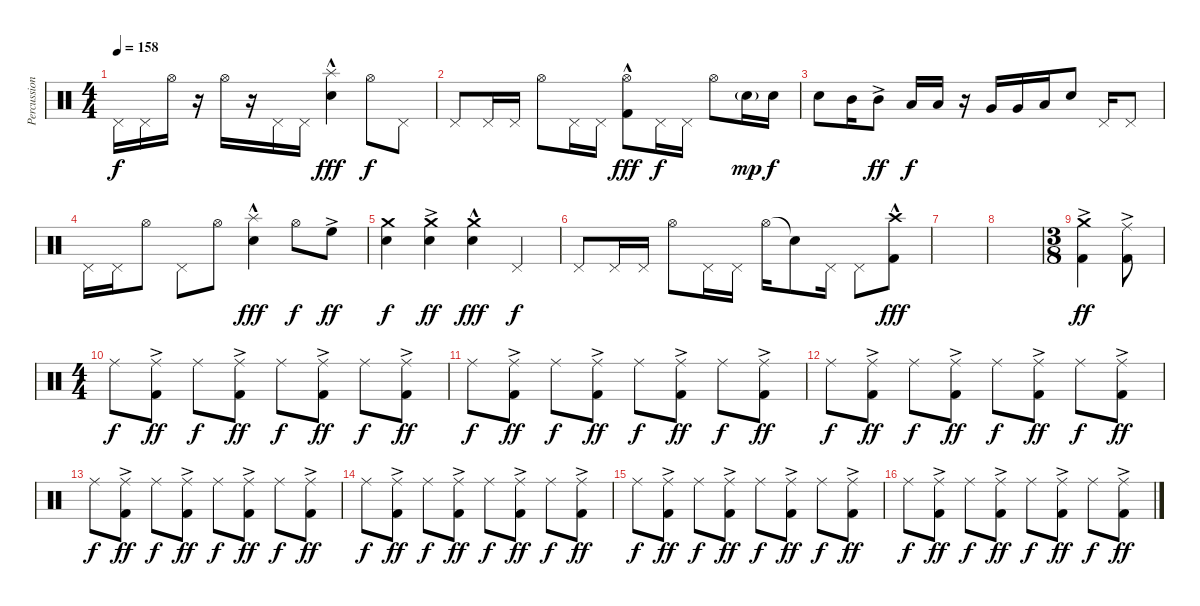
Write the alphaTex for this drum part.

\track ("Percussion" "Percussion") {instrument percussion}
\staff {score}
\articulation defaults
\ts (4 4)
\tempo 158
\clef neutral
\ks c "Pedal Hi-Hat (hit)".16{dy f} "Pedal Hi-Hat (hit)".16 "Hi-Hat (open)".16
r.16 "Hi-Hat (open)".16 r.16 "Pedal Hi-Hat (hit)".16 "Pedal Hi-Hat (hit)".16 ("Splash (hit)" "Electric Snare (hit)"{hac}).4{dy fff} "Hi-Hat (open)".8{dy f} "Pedal Hi-Hat (hit)".8 |
"Pedal Hi-Hat (hit)".8 "Pedal Hi-Hat (hit)".16 "Pedal Hi-Hat (hit)".16 "Hi-Hat (open)".8 "Pedal Hi-Hat (hit)".16 "Pedal Hi-Hat (hit)".16 ("Hi-Hat (open)" "Kick (hit) 2"{hac}).8{dy fff} "Pedal Hi-Hat (hit)".16{dy f} "Pedal Hi-Hat (hit)".16 "Hi-Hat (open)".8 "Electric Snare (hit)"{g}.16{dy mp} "Electric Snare (hit)".16{dy f} |
"Electric Snare (hit)".8 "Mid Tom (hit)".16 "Mid Tom (hit)"{ac}.8{dy ff} "Low Tom (hit)".16{dy f} "Low Tom (hit)".16 r.16 "Very Low Tom (hit)".16 "Very Low Tom (hit)".16 "Low Floor Tom (hit)".16 "Electric Snare (hit)".8 "Pedal Hi-Hat (hit)".16 "Pedal Hi-Hat (hit)".8 |
"Pedal Hi-Hat (hit)".16 "Pedal Hi-Hat (hit)".16 "Hi-Hat (open)".8 "Pedal Hi-Hat (hit)".8 "Hi-Hat (open)".8 ("Splash (hit)" "Electric Snare (hit)"{hac}).4{dy fff} "Hi-Hat (open)".8{dy f} "High Floor Tom (hit)"{ac}.8{dy ff} |
("Crash medium (hit)" "Electric Snare (hit)").4{dy f} ("Crash medium (hit)" "Electric Snare (hit)"{ac}).4{dy ff} ("Crash medium (hit)" "Electric Snare (hit)"{hac}).4{dy fff} "Pedal Hi-Hat (hit)".4{dy f} |
"Pedal Hi-Hat (hit)".8 "Pedal Hi-Hat (hit)".16 "Pedal Hi-Hat (hit)".16 "Hi-Hat (open)".8 "Pedal Hi-Hat (hit)".16 "Pedal Hi-Hat (hit)".16 "Hi-Hat (open)".16 "Snare (hit)"{t}.8 "Pedal Hi-Hat (hit)".16 "Pedal Hi-Hat (hit)".8 ("Crash high (hit)" "Kick (hit) 2"{hac}).8{dy fff} |
|
|
\ts (3 8)
("Crash medium (hit)" "Kick (hit) 2"{ac}).4{dy ff} ("Ride (middle)"{ac} "Kick (hit) 2").8 |
\ts (4 4)
"Ride (middle)".8{dy f} ("Ride (middle)"{ac} "Kick (hit) 2").8{dy ff} "Ride (middle)".8{dy f} ("Ride (middle)"{ac} "Kick (hit) 2").8{dy ff} "Ride (middle)".8{dy f} ("Ride (middle)"{ac} "Kick (hit) 2").8{dy ff} "Ride (middle)".8{dy f} ("Ride (middle)"{ac} "Kick (hit) 2").8{dy ff} |
"Ride (middle)".8{dy f} ("Ride (middle)"{ac} "Kick (hit) 2").8{dy ff} "Ride (middle)".8{dy f} ("Ride (middle)"{ac} "Kick (hit) 2").8{dy ff} "Ride (middle)".8{dy f} ("Ride (middle)"{ac} "Kick (hit) 2").8{dy ff} "Ride (middle)".8{dy f} ("Ride (middle)"{ac} "Kick (hit) 2").8{dy ff} |
"Ride (middle)".8{dy f} ("Ride (middle)"{ac} "Kick (hit) 2").8{dy ff} "Ride (middle)".8{dy f} ("Ride (middle)"{ac} "Kick (hit) 2").8{dy ff} "Ride (middle)".8{dy f} ("Ride (middle)"{ac} "Kick (hit) 2").8{dy ff} "Ride (middle)".8{dy f} ("Ride (middle)"{ac} "Kick (hit) 2").8{dy ff} |
"Ride (middle)".8{dy f} ("Ride (middle)"{ac} "Kick (hit) 2").8{dy ff} "Ride (middle)".8{dy f} ("Ride (middle)"{ac} "Kick (hit) 2").8{dy ff} "Ride (middle)".8{dy f} ("Ride (middle)"{ac} "Kick (hit) 2").8{dy ff} "Ride (middle)".8{dy f} ("Ride (middle)"{ac} "Kick (hit) 2").8{dy ff} |
"Ride (middle)".8{dy f} ("Ride (middle)"{ac} "Kick (hit) 2").8{dy ff} "Ride (middle)".8{dy f} ("Ride (middle)"{ac} "Kick (hit) 2").8{dy ff} "Ride (middle)".8{dy f} ("Ride (middle)"{ac} "Kick (hit) 2").8{dy ff} "Ride (middle)".8{dy f} ("Ride (middle)"{ac} "Kick (hit) 2").8{dy ff} |
"Ride (middle)".8{dy f} ("Ride (middle)"{ac} "Kick (hit) 2").8{dy ff} "Ride (middle)".8{dy f} ("Ride (middle)"{ac} "Kick (hit) 2").8{dy ff} "Ride (middle)".8{dy f} ("Ride (middle)"{ac} "Kick (hit) 2").8{dy ff} "Ride (middle)".8{dy f} ("Ride (middle)"{ac} "Kick (hit) 2").8{dy ff} |
"Ride (middle)".8{dy f} ("Ride (middle)"{ac} "Kick (hit) 2").8{dy ff} "Ride (middle)".8{dy f} ("Ride (middle)"{ac} "Kick (hit) 2").8{dy ff} "Ride (middle)".8{dy f} ("Ride (middle)"{ac} "Kick (hit) 2").8{dy ff} "Ride (middle)".8{dy f} ("Ride (middle)"{ac} "Kick (hit) 2").8{dy ff}
